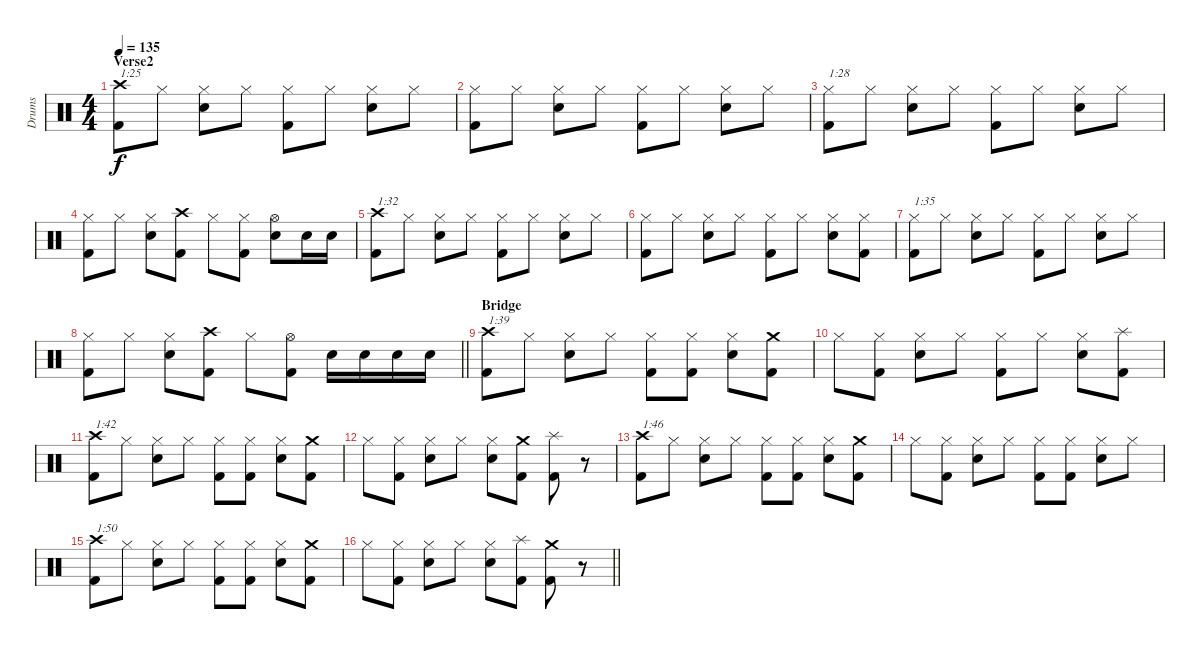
\track ("Drums" "Drums") {instrument percussion}
\staff {score}
\articulation defaults
\ts (4 4)
\section ("" "Verse2")
\tempo 135
\clef neutral
\ks c
("Crash high (hit)" "Kick (hit) 2").8{txt "1:25" dy f} "Hi-Hat (closed)".8 ("Hi-Hat (closed)" "Electric Snare (hit)").8 "Hi-Hat (closed)".8 ("Hi-Hat (closed)" "Kick (hit) 2").8 "Hi-Hat (closed)".8 ("Hi-Hat (closed)" "Electric Snare (hit)").8 "Hi-Hat (closed)".8 |
("Hi-Hat (closed)" "Kick (hit) 2").8 "Hi-Hat (closed)".8 ("Hi-Hat (closed)" "Electric Snare (hit)").8 "Hi-Hat (closed)".8 ("Hi-Hat (closed)" "Kick (hit) 2").8 "Hi-Hat (closed)".8 ("Hi-Hat (closed)" "Electric Snare (hit)").8 "Hi-Hat (closed)".8 |
("Hi-Hat (closed)" "Kick (hit) 2").8{txt "1:28"} "Hi-Hat (closed)".8 ("Hi-Hat (closed)" "Electric Snare (hit)").8 "Hi-Hat (closed)".8 ("Hi-Hat (closed)" "Kick (hit) 2").8 "Hi-Hat (closed)".8 ("Hi-Hat (closed)" "Electric Snare (hit)").8 "Hi-Hat (closed)".8 |
("Hi-Hat (closed)" "Kick (hit) 2").8 "Hi-Hat (closed)".8 ("Hi-Hat (closed)" "Electric Snare (hit)").8 ("Crash high (hit)" "Kick (hit) 2").8 "Hi-Hat (closed)".8 ("Hi-Hat (closed)" "Kick (hit) 2").8 ("Hi-Hat (open)" "Electric Snare (hit)").8 "Electric Snare (hit)".16 "Electric Snare (hit)".16 |
("Crash high (hit)" "Kick (hit) 2").8{txt "1:32"} "Hi-Hat (closed)".8 ("Hi-Hat (closed)" "Electric Snare (hit)").8 "Hi-Hat (closed)".8 ("Hi-Hat (closed)" "Kick (hit) 2").8 "Hi-Hat (closed)".8 ("Hi-Hat (closed)" "Electric Snare (hit)").8 "Hi-Hat (closed)".8 |
("Hi-Hat (closed)" "Kick (hit) 2").8 "Hi-Hat (closed)".8 ("Hi-Hat (closed)" "Electric Snare (hit)").8 "Hi-Hat (closed)".8 ("Hi-Hat (closed)" "Kick (hit) 2").8 "Hi-Hat (closed)".8 ("Hi-Hat (closed)" "Electric Snare (hit)").8 ("Hi-Hat (closed)" "Kick (hit) 2").8 |
("Hi-Hat (closed)" "Kick (hit) 2").8{txt "1:35"} "Hi-Hat (closed)".8 ("Hi-Hat (closed)" "Electric Snare (hit)").8 "Hi-Hat (closed)".8 ("Hi-Hat (closed)" "Kick (hit) 2").8 "Hi-Hat (closed)".8 ("Hi-Hat (closed)" "Electric Snare (hit)").8 "Hi-Hat (closed)".8 |
\barLineRight lightlight
("Hi-Hat (closed)" "Kick (hit) 2").8 "Hi-Hat (closed)".8 ("Hi-Hat (closed)" "Electric Snare (hit)").8 ("Crash high (hit)" "Kick (hit) 2").8 "Hi-Hat (closed)".8 ("Hi-Hat (open)" "Kick (hit) 2").8 "Electric Snare (hit)".16 "Electric Snare (hit)".16 "Electric Snare (hit)".16 "Electric Snare (hit)".16 |
\section ("" "Bridge")
("Crash high (hit)" "Kick (hit) 2").8{txt "1:39"} "Hi-Hat (closed)".8 ("Hi-Hat (closed)" "Electric Snare (hit)").8 "Hi-Hat (closed)".8 ("Hi-Hat (closed)" "Kick (hit) 2").8 ("Hi-Hat (closed)" "Kick (hit) 2").8 ("Hi-Hat (closed)" "Electric Snare (hit)").8 ("Crash medium (hit)" "Kick (hit) 2").8 |
"Hi-Hat (closed)".8 ("Hi-Hat (closed)" "Kick (hit) 2").8 ("Hi-Hat (closed)" "Electric Snare (hit)").8 "Hi-Hat (closed)".8 ("Hi-Hat (closed)" "Kick (hit) 2").8 "Hi-Hat (closed)".8 ("Hi-Hat (closed)" "Electric Snare (hit)").8 ("Splash (hit)" "Kick (hit) 2").8 |
("Crash high (hit)" "Kick (hit) 2").8{txt "1:42"} "Hi-Hat (closed)".8 ("Hi-Hat (closed)" "Electric Snare (hit)").8 "Hi-Hat (closed)".8 ("Hi-Hat (closed)" "Kick (hit) 2").8 ("Hi-Hat (closed)" "Kick (hit) 2").8 ("Hi-Hat (closed)" "Electric Snare (hit)").8 ("Crash medium (hit)" "Kick (hit) 2").8 |
"Hi-Hat (closed)".8 ("Hi-Hat (closed)" "Kick (hit) 2").8 ("Hi-Hat (closed)" "Electric Snare (hit)").8 "Hi-Hat (closed)".8 ("Hi-Hat (closed)" "Electric Snare (hit)").8 ("Crash medium (hit)" "Kick (hit) 2").8 ("Splash (hit)" "Kick (hit) 2").8 r.8 |
("Crash high (hit)" "Kick (hit) 2").8{txt "1:46"} "Hi-Hat (closed)".8 ("Hi-Hat (closed)" "Electric Snare (hit)").8 "Hi-Hat (closed)".8 ("Hi-Hat (closed)" "Kick (hit) 2").8 ("Hi-Hat (closed)" "Kick (hit) 2").8 ("Hi-Hat (closed)" "Electric Snare (hit)").8 ("Crash medium (hit)" "Kick (hit) 2").8 |
"Hi-Hat (closed)".8 ("Hi-Hat (closed)" "Kick (hit) 2").8 ("Hi-Hat (closed)" "Electric Snare (hit)").8 "Hi-Hat (closed)".8 ("Hi-Hat (closed)" "Kick (hit) 2").8 ("Hi-Hat (closed)" "Kick (hit) 2").8 ("Hi-Hat (closed)" "Electric Snare (hit)").8 "Hi-Hat (closed)".8 |
("Crash high (hit)" "Kick (hit) 2").8{txt "1:50"} "Hi-Hat (closed)".8 ("Hi-Hat (closed)" "Electric Snare (hit)").8 "Hi-Hat (closed)".8 ("Hi-Hat (closed)" "Kick (hit) 2").8 ("Hi-Hat (closed)" "Kick (hit) 2").8 ("Hi-Hat (closed)" "Electric Snare (hit)").8 ("Crash medium (hit)" "Kick (hit) 2").8 |
\barLineRight lightlight "Hi-Hat (closed)".8
("Hi-Hat (closed)" "Kick (hit) 2").8 ("Hi-Hat (closed)" "Electric Snare (hit)").8 "Hi-Hat (closed)".8 ("Hi-Hat (closed)" "Electric Snare (hit)").8 ("Splash (hit)" "Kick (hit) 2").8 ("Crash medium (hit)" "Kick (hit) 2").8 r.8
